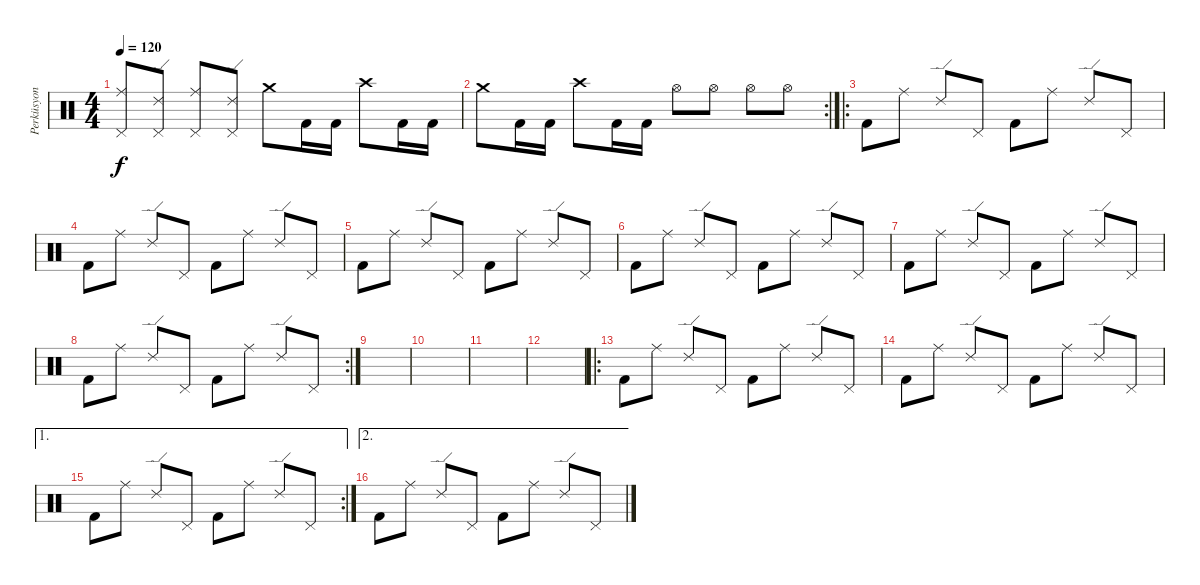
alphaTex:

\track ("Perküsyon" "Perküsyon") {instrument percussion}
\staff {score}
\articulation defaults
\ts (4 4)
\tempo 120
\clef neutral
\ks c
("Ride (middle)" "Pedal Hi-Hat (hit)").8{dy f} ("Ride (edge) 2" "Pedal Hi-Hat (hit)").8 ("Ride (middle)" "Pedal Hi-Hat (hit)").8 ("Ride (edge) 2" "Pedal Hi-Hat (hit)").8 "Crash medium (hit)".8 "Kick (hit) 2".16 "Kick (hit) 2".16 "Crash high (hit)".8 "Kick (hit) 2".16 "Kick (hit) 2".16 |
\rc 2 "Crash medium (hit)".8 "Kick (hit) 2".16 "Kick (hit) 2".16 "Crash high (hit)".8 "Kick (hit) 2".16 "Kick (hit) 2".16 "Hi-Hat (open)".8 "Hi-Hat (open)".8 "Hi-Hat (open)".8 "Hi-Hat (open)".8
|
\ro "Kick (hit) 2".8 "Ride (middle)".8 "Ride (edge) 2".8 "Pedal Hi-Hat (hit)".8 "Kick (hit) 2".8 "Ride (middle)".8 "Ride (edge) 2".8 "Pedal Hi-Hat (hit)".8
|
"Kick (hit) 2".8 "Ride (middle)".8 "Ride (edge) 2".8 "Pedal Hi-Hat (hit)".8 "Kick (hit) 2".8 "Ride (middle)".8 "Ride (edge) 2".8 "Pedal Hi-Hat (hit)".8 |
"Kick (hit) 2".8 "Ride (middle)".8 "Ride (edge) 2".8 "Pedal Hi-Hat (hit)".8 "Kick (hit) 2".8 "Ride (middle)".8 "Ride (edge) 2".8 "Pedal Hi-Hat (hit)".8 |
"Kick (hit) 2".8 "Ride (middle)".8 "Ride (edge) 2".8 "Pedal Hi-Hat (hit)".8 "Kick (hit) 2".8 "Ride (middle)".8 "Ride (edge) 2".8 "Pedal Hi-Hat (hit)".8 |
"Kick (hit) 2".8 "Ride (middle)".8 "Ride (edge) 2".8 "Pedal Hi-Hat (hit)".8 "Kick (hit) 2".8 "Ride (middle)".8 "Ride (edge) 2".8 "Pedal Hi-Hat (hit)".8 |
\rc 2 "Kick (hit) 2".8 "Ride (middle)".8 "Ride (edge) 2".8 "Pedal Hi-Hat (hit)".8 "Kick (hit) 2".8 "Ride (middle)".8 "Ride (edge) 2".8 "Pedal Hi-Hat (hit)".8
|
|
|
|
|
\ro "Kick (hit) 2".8 "Ride (middle)".8 "Ride (edge) 2".8 "Pedal Hi-Hat (hit)".8 "Kick (hit) 2".8 "Ride (middle)".8 "Ride (edge) 2".8 "Pedal Hi-Hat (hit)".8
|
"Kick (hit) 2".8 "Ride (middle)".8 "Ride (edge) 2".8 "Pedal Hi-Hat (hit)".8 "Kick (hit) 2".8 "Ride (middle)".8 "Ride (edge) 2".8 "Pedal Hi-Hat (hit)".8 |
\ae 1
\rc 2 "Kick (hit) 2".8 "Ride (middle)".8 "Ride (edge) 2".8 "Pedal Hi-Hat (hit)".8 "Kick (hit) 2".8 "Ride (middle)".8 "Ride (edge) 2".8 "Pedal Hi-Hat (hit)".8
|
\ae 2 "Kick (hit) 2".8 "Ride (middle)".8 "Ride (edge) 2".8 "Pedal Hi-Hat (hit)".8 "Kick (hit) 2".8 "Ride (middle)".8 "Ride (edge) 2".8 "Pedal Hi-Hat (hit)".8
